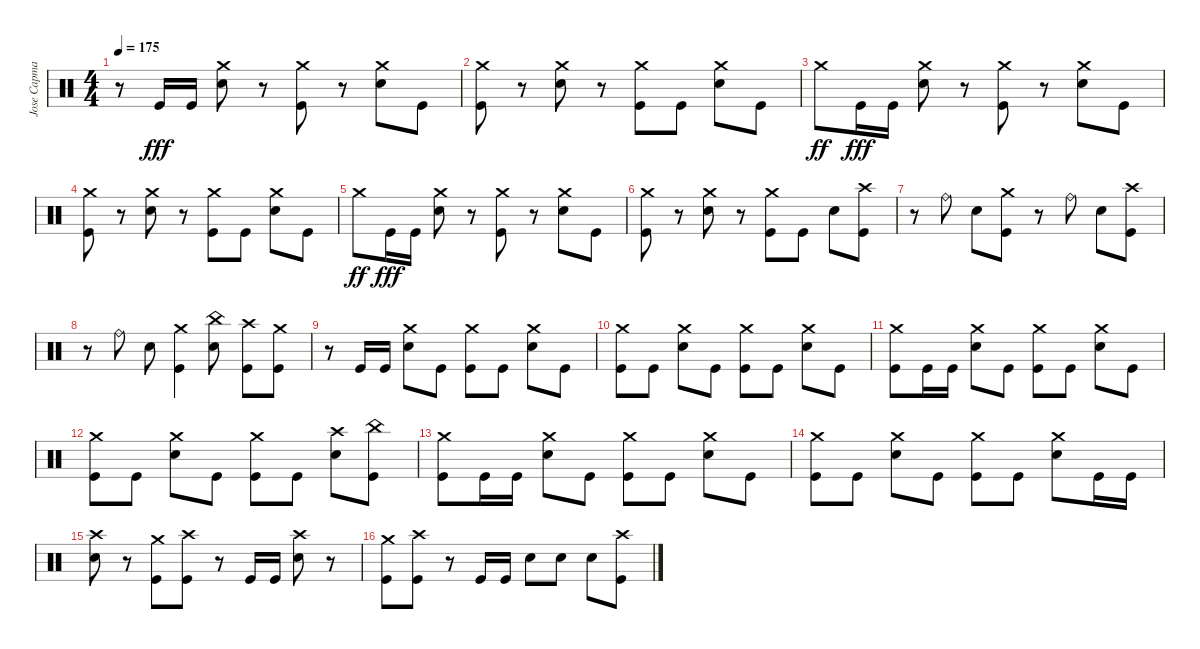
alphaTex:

\track ("Jose Capmany" "Jose Capma") {instrument percussion}
\staff {score}
\articulation defaults
\ts (4 4)
\tempo 175
\clef neutral
\ks c
r.8{dy fff} "Kick (hit)".16 "Kick (hit)".16 ("Crash medium (hit)" "Snare (hit) 2").8 r.8 ("Crash medium (hit)" "Kick (hit)").8 r.8 ("Crash medium (hit)" "Snare (hit) 2").8 "Kick (hit)".8 |
("Crash medium (hit)" "Kick (hit)").8 r.8 ("Crash medium (hit)" "Snare (hit) 2").8 r.8 ("Crash medium (hit)" "Kick (hit)").8 "Kick (hit)".8 ("Crash medium (hit)" "Snare (hit) 2").8 "Kick (hit)".8 |
"Crash medium (hit)".8{dy ff} "Kick (hit)".16{dy fff} "Kick (hit)".16 ("Crash medium (hit)" "Snare (hit) 2").8 r.8 ("Crash medium (hit)" "Kick (hit)").8 r.8 ("Crash medium (hit)" "Snare (hit) 2").8 "Kick (hit)".8 |
("Crash medium (hit)" "Kick (hit)").8 r.8 ("Crash medium (hit)" "Snare (hit) 2").8 r.8 ("Crash medium (hit)" "Kick (hit)").8 "Kick (hit)".8 ("Crash medium (hit)" "Snare (hit) 2").8 "Kick (hit)".8 |
"Crash medium (hit)".8{dy ff} "Kick (hit)".16{dy fff} "Kick (hit)".16 ("Crash medium (hit)" "Snare (hit) 2").8 r.8 ("Crash medium (hit)" "Kick (hit)").8 r.8 ("Crash medium (hit)" "Snare (hit) 2").8 "Kick (hit)".8 |
("Crash medium (hit)" "Kick (hit)").8 r.8 ("Crash medium (hit)" "Snare (hit) 2").8 r.8 ("Crash medium (hit)" "Kick (hit)").8 "Kick (hit)".8 "Snare (hit) 2".8 ("Crash high (hit)" "Kick (hit)").8 |
r.8 "Ride (bell)".8 "Snare (hit) 2".8 ("Crash medium (hit)" "Kick (hit)").8 r.8 "Ride (bell)".8 "Snare (hit) 2".8 ("Crash high (hit)" "Kick (hit)").8 |
r.8 "Ride (bell)".8 "Snare (hit) 2".8 ("Crash medium (hit)" "Kick (hit)").4 ("China (hit)" "Snare (hit) 2").8 ("Crash high (hit)" "Kick (hit)").8 ("Crash medium (hit)" "Kick (hit)").8 |
r.8 "Kick (hit)".16 "Kick (hit)".16 ("Crash medium (hit)" "Snare (hit) 2").8 "Kick (hit)".8 ("Crash medium (hit)" "Kick (hit)").8 "Kick (hit)".8 ("Crash medium (hit)" "Snare (hit) 2").8 "Kick (hit)".8 |
("Crash medium (hit)" "Kick (hit)").8 "Kick (hit)".8 ("Crash medium (hit)" "Snare (hit) 2").8 "Kick (hit)".8 ("Crash medium (hit)" "Kick (hit)").8 "Kick (hit)".8 ("Crash medium (hit)" "Snare (hit) 2").8 "Kick (hit)".8 |
("Crash medium (hit)" "Kick (hit)").8 "Kick (hit)".16 "Kick (hit)".16 ("Crash medium (hit)" "Snare (hit) 2").8 "Kick (hit)".8 ("Crash medium (hit)" "Kick (hit)").8 "Kick (hit)".8 ("Crash medium (hit)" "Snare (hit) 2").8 "Kick (hit)".8 |
("Crash medium (hit)" "Kick (hit)").8 "Kick (hit)".8 ("Crash medium (hit)" "Snare (hit) 2").8 "Kick (hit)".8 ("Crash medium (hit)" "Kick (hit)").8 "Kick (hit)".8 ("Crash high (hit)" "Snare (hit) 2").8 ("China (hit)" "Kick (hit)").8 |
("Crash medium (hit)" "Kick (hit)").8 "Kick (hit)".16 "Kick (hit)".16 ("Crash medium (hit)" "Snare (hit) 2").8 "Kick (hit)".8 ("Crash medium (hit)" "Kick (hit)").8 "Kick (hit)".8 ("Crash medium (hit)" "Snare (hit) 2").8 "Kick (hit)".8 |
("Crash medium (hit)" "Kick (hit)").8 "Kick (hit)".8 ("Crash medium (hit)" "Snare (hit) 2").8 "Kick (hit)".8 ("Crash medium (hit)" "Kick (hit)").8 "Kick (hit)".8 ("Crash medium (hit)" "Snare (hit) 2").8 "Kick (hit)".16 "Kick (hit)".16 |
("Crash high (hit)" "Snare (hit) 2").8 r.8 ("Crash medium (hit)" "Kick (hit)").8 ("Crash high (hit)" "Kick (hit)").8 r.8 "Kick (hit)".16 "Kick (hit)".16 ("Crash high (hit)" "Snare (hit) 2").8 r.8 |
("Crash medium (hit)" "Kick (hit)").8 ("Crash high (hit)" "Kick (hit)").8 r.8 "Kick (hit)".16 "Kick (hit)".16 "Snare (hit) 2".8 "Snare (hit) 2".8 "Snare (hit) 2".8 ("Crash high (hit)" "Kick (hit)").8
